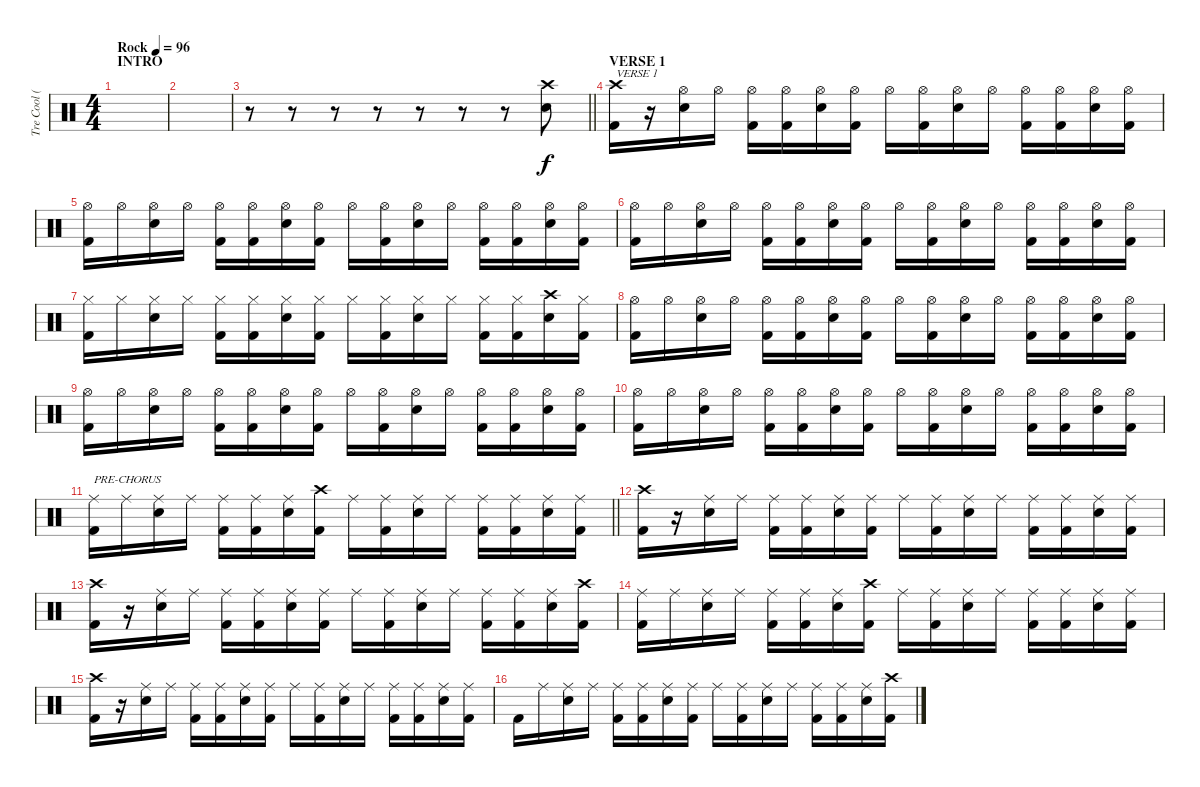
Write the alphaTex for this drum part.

\track ("Tre Cool (Drums)" "Tre Cool (") {instrument percussion}
\staff {score}
\articulation defaults
\ts (4 4)
\section ("" "INTRO")
\tempo (96 "Rock")
\clef neutral
\ks c
|
|
\barLineRight lightlight
r.8 r.8 r.8 r.8 r.8 r.8 r.8 ("Crash high (hit)" "Electric Snare (hit)").8 |
\section ("" "VERSE 1")
("Crash high (hit)" "Kick (hit) 2").16{txt "VERSE 1"} r.16 ("Hi-Hat (open)" "Electric Snare (hit)").16 "Hi-Hat (open)".16 ("Hi-Hat (open)" "Kick (hit) 2").16 ("Hi-Hat (open)" "Kick (hit) 2").16 ("Hi-Hat (open)" "Electric Snare (hit)").16 ("Hi-Hat (open)" "Kick (hit) 2").16 "Hi-Hat (open)".16 ("Hi-Hat (open)" "Kick (hit) 2").16 ("Hi-Hat (open)" "Electric Snare (hit)").16 "Hi-Hat (open)".16 ("Hi-Hat (open)" "Kick (hit) 2").16 ("Hi-Hat (open)" "Kick (hit) 2").16 ("Hi-Hat (open)" "Electric Snare (hit)").16 ("Hi-Hat (open)" "Kick (hit) 2").16 |
("Hi-Hat (open)" "Kick (hit) 2").16 "Hi-Hat (open)".16 ("Hi-Hat (open)" "Electric Snare (hit)").16 "Hi-Hat (open)".16 ("Hi-Hat (open)" "Kick (hit) 2").16 ("Hi-Hat (open)" "Kick (hit) 2").16 ("Hi-Hat (open)" "Electric Snare (hit)").16 ("Hi-Hat (open)" "Kick (hit) 2").16 "Hi-Hat (open)".16 ("Hi-Hat (open)" "Kick (hit) 2").16 ("Hi-Hat (open)" "Electric Snare (hit)").16 "Hi-Hat (open)".16 ("Hi-Hat (open)" "Kick (hit) 2").16 ("Hi-Hat (open)" "Kick (hit) 2").16 ("Hi-Hat (open)" "Electric Snare (hit)").16 ("Hi-Hat (open)" "Kick (hit) 2").16 |
("Hi-Hat (open)" "Kick (hit) 2").16 "Hi-Hat (open)".16 ("Hi-Hat (open)" "Electric Snare (hit)").16 "Hi-Hat (open)".16 ("Hi-Hat (open)" "Kick (hit) 2").16 ("Hi-Hat (open)" "Kick (hit) 2").16 ("Hi-Hat (open)" "Electric Snare (hit)").16 ("Hi-Hat (open)" "Kick (hit) 2").16 "Hi-Hat (open)".16 ("Hi-Hat (open)" "Kick (hit) 2").16 ("Hi-Hat (open)" "Electric Snare (hit)").16 "Hi-Hat (open)".16 ("Hi-Hat (open)" "Kick (hit) 2").16 ("Hi-Hat (open)" "Kick (hit) 2").16 ("Hi-Hat (open)" "Electric Snare (hit)").16 ("Hi-Hat (open)" "Kick (hit) 2").16 |
("Hi-Hat (closed)" "Kick (hit) 2").16 "Hi-Hat (closed)".16 ("Hi-Hat (closed)" "Electric Snare (hit)").16 "Hi-Hat (closed)".16 ("Hi-Hat (closed)" "Kick (hit) 2").16 ("Hi-Hat (closed)" "Kick (hit) 2").16 ("Hi-Hat (closed)" "Electric Snare (hit)").16 ("Hi-Hat (closed)" "Kick (hit) 2").16 "Hi-Hat (closed)".16 ("Hi-Hat (closed)" "Kick (hit) 2").16 ("Hi-Hat (closed)" "Electric Snare (hit)").16 "Hi-Hat (closed)".16 ("Hi-Hat (closed)" "Kick (hit) 2").16 ("Hi-Hat (closed)" "Kick (hit) 2").16 ("Crash high (hit)" "Electric Snare (hit)").16 ("Hi-Hat (closed)" "Kick (hit) 2").16 |
("Hi-Hat (open)" "Kick (hit) 2").16 "Hi-Hat (open)".16 ("Hi-Hat (open)" "Electric Snare (hit)").16 "Hi-Hat (open)".16 ("Hi-Hat (open)" "Kick (hit) 2").16 ("Hi-Hat (open)" "Kick (hit) 2").16 ("Hi-Hat (open)" "Electric Snare (hit)").16 ("Hi-Hat (open)" "Kick (hit) 2").16 "Hi-Hat (open)".16 ("Hi-Hat (open)" "Kick (hit) 2").16 ("Hi-Hat (open)" "Electric Snare (hit)").16 "Hi-Hat (open)".16 ("Hi-Hat (open)" "Kick (hit) 2").16 ("Hi-Hat (open)" "Kick (hit) 2").16 ("Hi-Hat (open)" "Electric Snare (hit)").16 ("Hi-Hat (open)" "Kick (hit) 2").16 |
("Hi-Hat (open)" "Kick (hit) 2").16 "Hi-Hat (open)".16 ("Hi-Hat (open)" "Electric Snare (hit)").16 "Hi-Hat (open)".16 ("Hi-Hat (open)" "Kick (hit) 2").16 ("Hi-Hat (open)" "Kick (hit) 2").16 ("Hi-Hat (open)" "Electric Snare (hit)").16 ("Hi-Hat (open)" "Kick (hit) 2").16 "Hi-Hat (open)".16 ("Hi-Hat (open)" "Kick (hit) 2").16 ("Hi-Hat (open)" "Electric Snare (hit)").16 "Hi-Hat (open)".16 ("Hi-Hat (open)" "Kick (hit) 2").16 ("Hi-Hat (open)" "Kick (hit) 2").16 ("Hi-Hat (open)" "Electric Snare (hit)").16 ("Hi-Hat (open)" "Kick (hit) 2").16 |
("Hi-Hat (open)" "Kick (hit) 2").16 "Hi-Hat (open)".16 ("Hi-Hat (open)" "Electric Snare (hit)").16 "Hi-Hat (open)".16 ("Hi-Hat (open)" "Kick (hit) 2").16 ("Hi-Hat (open)" "Kick (hit) 2").16 ("Hi-Hat (open)" "Electric Snare (hit)").16 ("Hi-Hat (open)" "Kick (hit) 2").16 "Hi-Hat (open)".16 ("Hi-Hat (open)" "Kick (hit) 2").16 ("Hi-Hat (open)" "Electric Snare (hit)").16 "Hi-Hat (open)".16 ("Hi-Hat (open)" "Kick (hit) 2").16 ("Hi-Hat (open)" "Kick (hit) 2").16 ("Hi-Hat (open)" "Electric Snare (hit)").16 ("Hi-Hat (open)" "Kick (hit) 2").16 |
\barLineRight lightlight
("Ride (middle)" "Kick (hit) 2").16{txt "PRE-CHORUS"} "Ride (middle)".16 ("Ride (middle)" "Electric Snare (hit)").16 "Ride (middle)".16 ("Ride (middle)" "Kick (hit) 2").16 ("Ride (middle)" "Kick (hit) 2").16 ("Ride (middle)" "Electric Snare (hit)").16 ("Crash high (hit)" "Kick (hit) 2").16 "Ride (middle)".16 ("Ride (middle)" "Kick (hit) 2").16 ("Ride (middle)" "Electric Snare (hit)").16 "Ride (middle)".16 ("Ride (middle)" "Kick (hit) 2").16 ("Ride (middle)" "Kick (hit) 2").16 ("Ride (middle)" "Electric Snare (hit)").16 ("Ride (middle)" "Kick (hit) 2").16 |
("Crash high (hit)" "Kick (hit) 2").16 r.16 ("Ride (middle)" "Electric Snare (hit)").16 "Ride (middle)".16 ("Ride (middle)" "Kick (hit) 2").16 ("Ride (middle)" "Kick (hit) 2").16 ("Ride (middle)" "Electric Snare (hit)").16 ("Ride (middle)" "Kick (hit) 2").16 "Ride (middle)".16 ("Ride (middle)" "Kick (hit) 2").16 ("Ride (middle)" "Electric Snare (hit)").16 "Ride (middle)".16 ("Ride (middle)" "Kick (hit) 2").16 ("Ride (middle)" "Kick (hit) 2").16 ("Ride (middle)" "Electric Snare (hit)").16 ("Ride (middle)" "Kick (hit) 2").16 |
("Crash high (hit)" "Kick (hit) 2").16 r.16 ("Ride (middle)" "Electric Snare (hit)").16 "Ride (middle)".16 ("Ride (middle)" "Kick (hit) 2").16 ("Ride (middle)" "Kick (hit) 2").16 ("Ride (middle)" "Electric Snare (hit)").16 ("Ride (middle)" "Kick (hit) 2").16 "Ride (middle)".16 ("Ride (middle)" "Kick (hit) 2").16 ("Ride (middle)" "Electric Snare (hit)").16 "Ride (middle)".16 ("Ride (middle)" "Kick (hit) 2").16 ("Ride (middle)" "Kick (hit) 2").16 ("Ride (middle)" "Electric Snare (hit)").16 ("Crash high (hit)" "Kick (hit) 2").16 |
("Ride (middle)" "Kick (hit) 2").16 "Ride (middle)".16 ("Ride (middle)" "Electric Snare (hit)").16 "Ride (middle)".16 ("Ride (middle)" "Kick (hit) 2").16 ("Ride (middle)" "Kick (hit) 2").16 ("Ride (middle)" "Electric Snare (hit)").16 ("Crash high (hit)" "Kick (hit) 2").16 "Ride (middle)".16 ("Ride (middle)" "Kick (hit) 2").16 ("Ride (middle)" "Electric Snare (hit)").16 "Ride (middle)".16 ("Ride (middle)" "Kick (hit) 2").16 ("Ride (middle)" "Kick (hit) 2").16 ("Ride (middle)" "Electric Snare (hit)").16 ("Ride (middle)" "Kick (hit) 2").16 |
("Crash high (hit)" "Kick (hit) 2").16 r.16 ("Ride (middle)" "Electric Snare (hit)").16 "Ride (middle)".16 ("Ride (middle)" "Kick (hit) 2").16 ("Ride (middle)" "Kick (hit) 2").16 ("Ride (middle)" "Electric Snare (hit)").16 ("Ride (middle)" "Kick (hit) 2").16 "Ride (middle)".16 ("Ride (middle)" "Kick (hit) 2").16 ("Ride (middle)" "Electric Snare (hit)").16 "Ride (middle)".16 ("Ride (middle)" "Kick (hit) 2").16 ("Ride (middle)" "Kick (hit) 2").16 ("Ride (middle)" "Electric Snare (hit)").16 ("Ride (middle)" "Kick (hit) 2").16 |
"Kick (hit) 2".16 "Ride (middle)".16 ("Ride (middle)" "Electric Snare (hit)").16 "Ride (middle)".16 ("Ride (middle)" "Kick (hit) 2").16 ("Ride (middle)" "Kick (hit) 2").16 ("Ride (middle)" "Electric Snare (hit)").16 ("Ride (middle)" "Kick (hit) 2").16 "Ride (middle)".16 ("Ride (middle)" "Kick (hit) 2").16 ("Ride (middle)" "Electric Snare (hit)").16 "Ride (middle)".16 ("Ride (middle)" "Kick (hit) 2").16 ("Ride (middle)" "Kick (hit) 2").16 ("Ride (middle)" "Electric Snare (hit)").16 ("Crash high (hit)" "Kick (hit) 2").16
